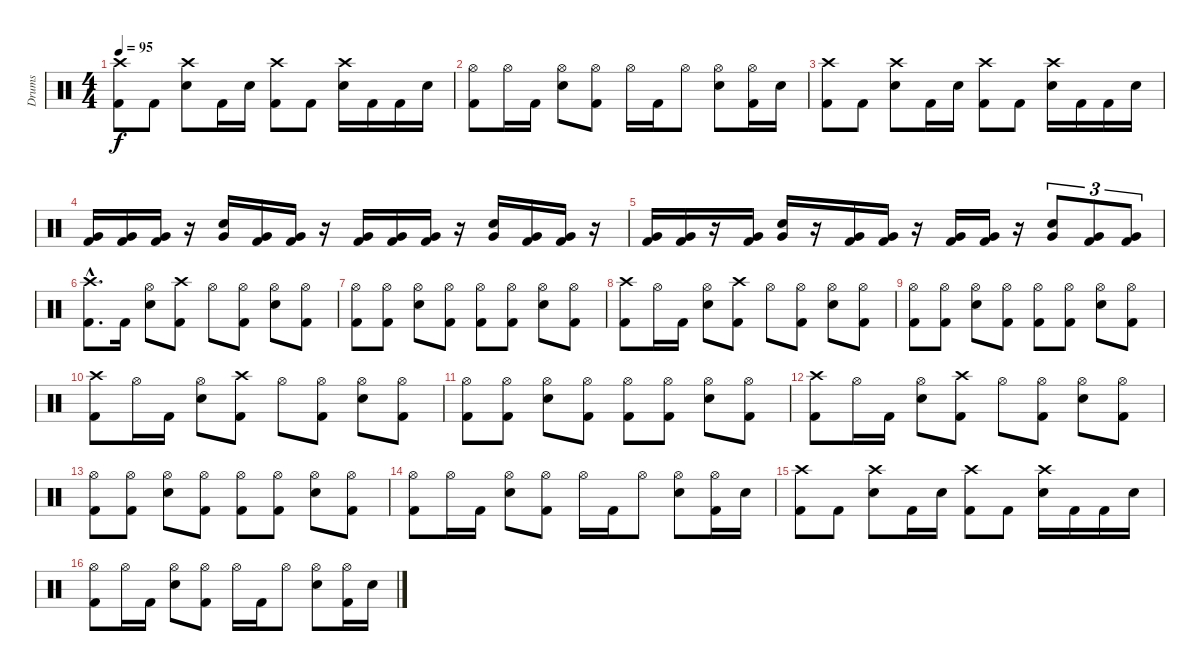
\track ("Drums" "Drums") {instrument percussion}
\staff {score}
\articulation defaults
\ts (4 4)
\tempo 95
\clef neutral
\ks c
("Crash high (hit)" "Kick (hit) 2").8{dy f} "Kick (hit) 2".8 ("Crash high (hit)" "Snare (hit) 2").8 "Kick (hit) 2".16 "Snare (hit) 2".16 ("Crash high (hit)" "Kick (hit) 2").8 "Kick (hit) 2".8 ("Crash high (hit)" "Snare (hit) 2").16 "Kick (hit) 2".16 "Kick (hit) 2".16 "Snare (hit) 2".16 |
("Hi-Hat (open)" "Kick (hit) 2").8 "Hi-Hat (open)".16 "Kick (hit) 2".16 ("Hi-Hat (open)" "Snare (hit) 2").8 ("Hi-Hat (open)" "Kick (hit) 2").8 "Hi-Hat (open)".16 "Kick (hit) 2".16 "Hi-Hat (open)".8 ("Hi-Hat (open)" "Snare (hit) 2").8 ("Hi-Hat (open)" "Kick (hit) 2").16 "Snare (hit) 2".16 |
("Crash high (hit)" "Kick (hit) 2").8 "Kick (hit) 2".8 ("Crash high (hit)" "Snare (hit) 2").8 "Kick (hit) 2".16 "Snare (hit) 2".16 ("Crash high (hit)" "Kick (hit) 2").8 "Kick (hit) 2".8 ("Crash high (hit)" "Snare (hit) 2").16 "Kick (hit) 2".16 "Kick (hit) 2".16 "Snare (hit) 2".16 |
("Kick (hit) 2" "Very Low Tom (hit)").16 ("Kick (hit) 2" "Very Low Tom (hit)").16 ("Kick (hit) 2" "Very Low Tom (hit)").16 r.16 ("Snare (hit) 2" "Very Low Tom (hit)").16 ("Kick (hit) 2" "Very Low Tom (hit)").16 ("Kick (hit) 2" "Very Low Tom (hit)").16 r.16 ("Kick (hit) 2" "Very Low Tom (hit)").16 ("Kick (hit) 2" "Very Low Tom (hit)").16 ("Kick (hit) 2" "Very Low Tom (hit)").16 r.16 ("Snare (hit) 2" "Very Low Tom (hit)").16 ("Kick (hit) 2" "Very Low Tom (hit)").16 ("Kick (hit) 2" "Very Low Tom (hit)").16 r.16 |
("Kick (hit) 2" "Very Low Tom (hit)").16 ("Kick (hit) 2" "Very Low Tom (hit)").16 r.16 ("Kick (hit) 2" "Very Low Tom (hit)").16 ("Snare (hit) 2" "Very Low Tom (hit)").16 r.16 ("Kick (hit) 2" "Very Low Tom (hit)").16 ("Kick (hit) 2" "Very Low Tom (hit)").16 r.16 ("Kick (hit) 2" "Very Low Tom (hit)").16 ("Kick (hit) 2" "Very Low Tom (hit)").16 r.16 ("Snare (hit) 2" "Very Low Tom (hit)").8{tu (3 2)} ("Kick (hit) 2" "Very Low Tom (hit)").8{tu (3 2)} ("Kick (hit) 2" "Very Low Tom (hit)").8{tu (3 2)} |
("Crash high (hit)"{hac} "Kick (hit) 2"{hac}).8{d} "Kick (hit) 2".16 ("Hi-Hat (open)" "Snare (hit) 2").8 ("Crash high (hit)" "Kick (hit) 2").8 "Hi-Hat (open)".8 ("Hi-Hat (open)" "Kick (hit) 2").8 ("Hi-Hat (open)" "Snare (hit) 2").8 ("Hi-Hat (open)" "Kick (hit) 2").8 |
("Hi-Hat (open)" "Kick (hit) 2").8 ("Hi-Hat (open)" "Kick (hit) 2").8 ("Hi-Hat (open)" "Snare (hit) 2").8 ("Hi-Hat (open)" "Kick (hit) 2").8 ("Hi-Hat (open)" "Kick (hit) 2").8 ("Hi-Hat (open)" "Kick (hit) 2").8 ("Hi-Hat (open)" "Snare (hit) 2").8 ("Hi-Hat (open)" "Kick (hit) 2").8 |
("Crash high (hit)" "Kick (hit) 2").8 "Hi-Hat (open)".16 "Kick (hit) 2".16 ("Hi-Hat (open)" "Snare (hit) 2").8 ("Crash high (hit)" "Kick (hit) 2").8 "Hi-Hat (open)".8 ("Hi-Hat (open)" "Kick (hit) 2").8 ("Hi-Hat (open)" "Snare (hit) 2").8 ("Hi-Hat (open)" "Kick (hit) 2").8 |
("Hi-Hat (open)" "Kick (hit) 2").8 ("Hi-Hat (open)" "Kick (hit) 2").8 ("Hi-Hat (open)" "Snare (hit) 2").8 ("Hi-Hat (open)" "Kick (hit) 2").8 ("Hi-Hat (open)" "Kick (hit) 2").8 ("Hi-Hat (open)" "Kick (hit) 2").8 ("Hi-Hat (open)" "Snare (hit) 2").8 ("Hi-Hat (open)" "Kick (hit) 2").8 |
("Crash high (hit)" "Kick (hit) 2").8 "Hi-Hat (open)".16 "Kick (hit) 2".16 ("Hi-Hat (open)" "Snare (hit) 2").8 ("Crash high (hit)" "Kick (hit) 2").8 "Hi-Hat (open)".8 ("Hi-Hat (open)" "Kick (hit) 2").8 ("Hi-Hat (open)" "Snare (hit) 2").8 ("Hi-Hat (open)" "Kick (hit) 2").8 |
("Hi-Hat (open)" "Kick (hit) 2").8 ("Hi-Hat (open)" "Kick (hit) 2").8 ("Hi-Hat (open)" "Snare (hit) 2").8 ("Hi-Hat (open)" "Kick (hit) 2").8 ("Hi-Hat (open)" "Kick (hit) 2").8 ("Hi-Hat (open)" "Kick (hit) 2").8 ("Hi-Hat (open)" "Snare (hit) 2").8 ("Hi-Hat (open)" "Kick (hit) 2").8 |
("Crash high (hit)" "Kick (hit) 2").8 "Hi-Hat (open)".16 "Kick (hit) 2".16 ("Hi-Hat (open)" "Snare (hit) 2").8 ("Crash high (hit)" "Kick (hit) 2").8 "Hi-Hat (open)".8 ("Hi-Hat (open)" "Kick (hit) 2").8 ("Hi-Hat (open)" "Snare (hit) 2").8 ("Hi-Hat (open)" "Kick (hit) 2").8 |
("Hi-Hat (open)" "Kick (hit) 2").8 ("Hi-Hat (open)" "Kick (hit) 2").8 ("Hi-Hat (open)" "Snare (hit) 2").8 ("Hi-Hat (open)" "Kick (hit) 2").8 ("Hi-Hat (open)" "Kick (hit) 2").8 ("Hi-Hat (open)" "Kick (hit) 2").8 ("Hi-Hat (open)" "Snare (hit) 2").8 ("Hi-Hat (open)" "Kick (hit) 2").8 |
("Hi-Hat (open)" "Kick (hit) 2").8 "Hi-Hat (open)".16 "Kick (hit) 2".16 ("Hi-Hat (open)" "Snare (hit) 2").8 ("Hi-Hat (open)" "Kick (hit) 2").8 "Hi-Hat (open)".16 "Kick (hit) 2".16 "Hi-Hat (open)".8 ("Hi-Hat (open)" "Snare (hit) 2").8 ("Hi-Hat (open)" "Kick (hit) 2").16 "Snare (hit) 2".16 |
("Crash high (hit)" "Kick (hit) 2").8 "Kick (hit) 2".8 ("Crash high (hit)" "Snare (hit) 2").8 "Kick (hit) 2".16 "Snare (hit) 2".16 ("Crash high (hit)" "Kick (hit) 2").8 "Kick (hit) 2".8 ("Crash high (hit)" "Snare (hit) 2").16 "Kick (hit) 2".16 "Kick (hit) 2".16 "Snare (hit) 2".16 |
("Hi-Hat (open)" "Kick (hit) 2").8 "Hi-Hat (open)".16 "Kick (hit) 2".16 ("Hi-Hat (open)" "Snare (hit) 2").8 ("Hi-Hat (open)" "Kick (hit) 2").8 "Hi-Hat (open)".16 "Kick (hit) 2".16 "Hi-Hat (open)".8 ("Hi-Hat (open)" "Snare (hit) 2").8 ("Hi-Hat (open)" "Kick (hit) 2").16 "Snare (hit) 2".16
